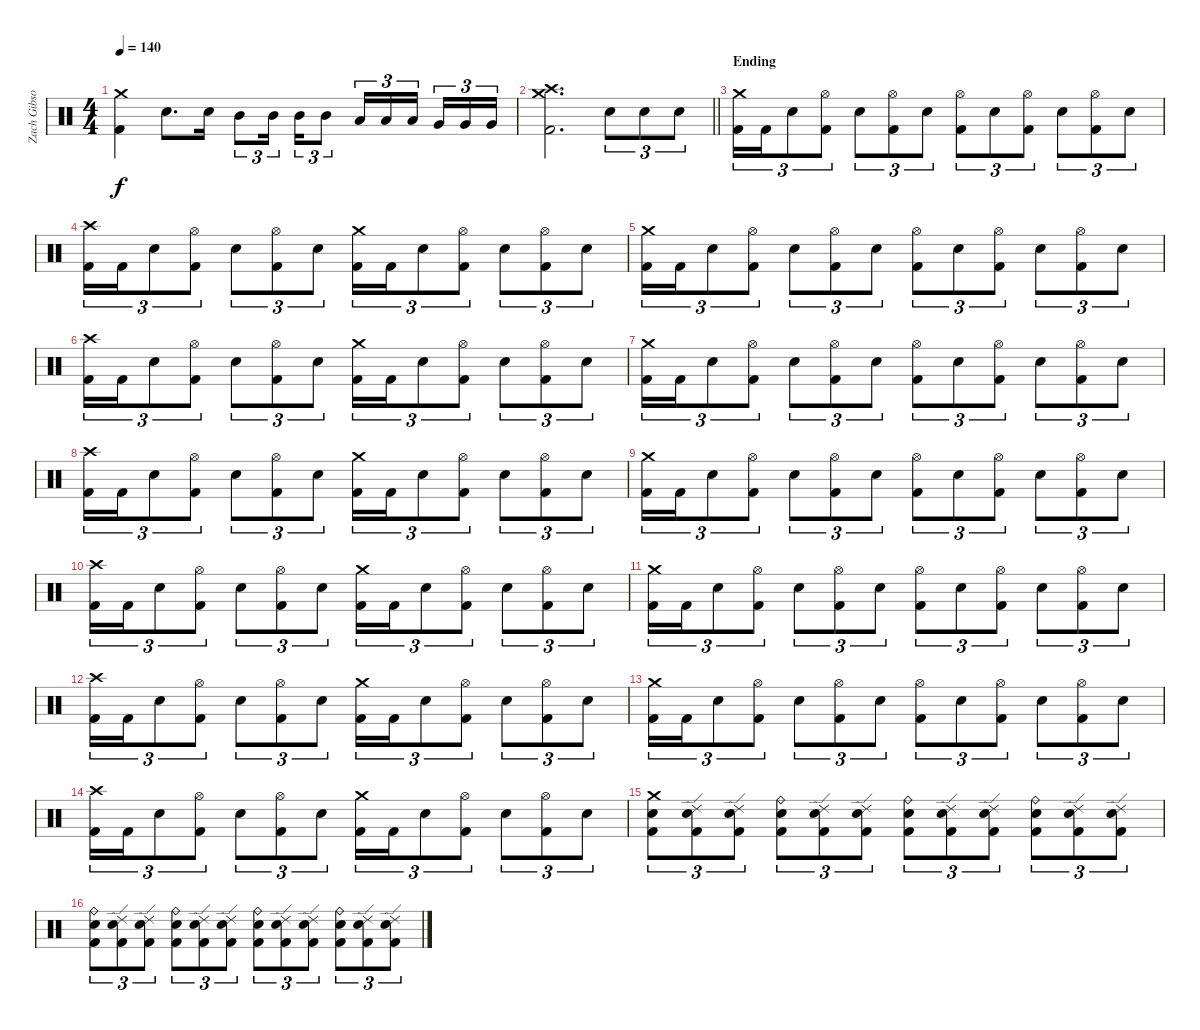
\track ("Zach Gibson" "Zach Gibso") {instrument percussion}
\staff {score}
\articulation defaults
\ts (4 4)
\tempo 140
\clef neutral
\ks c
("Crash medium (hit)" "Kick (hit) 2").4{dy f} "Snare (hit) 2".8{d} "Snare (hit) 2".16 "Mid Tom (hit)".8{tu (3 2)} "Mid Tom (hit)".16{tu (3 2) beam splitsecondary} "Mid Tom (hit)".16{tu (3 2)} "Mid Tom (hit)".8{tu (3 2)} "Low Tom (hit)".16{tu (3 2)} "Low Tom (hit)".16{tu (3 2)} "Low Tom (hit)".16{tu (3 2) beam splitsecondary} "Very Low Tom (hit)".16{tu (3 2)} "Very Low Tom (hit)".16{tu (3 2)} "Very Low Tom (hit)".16{tu (3 2)} |
\barLineRight lightlight
("Crash medium (hit)" "Crash high (hit)" "Kick (hit) 2").2{d} "Snare (hit) 2".8{tu (3 2)} "Snare (hit) 2".8{tu (3 2)} "Snare (hit) 2".8{tu (3 2)} |
\section ("" "Ending")
("Crash medium (hit)" "Kick (hit) 2").16{tu (3 2)} "Kick (hit) 2".16{tu (3 2)} "Snare (hit) 2".8{tu (3 2)} ("Hi-Hat (open)" "Kick (hit) 2").8{tu (3 2)} "Snare (hit) 2".8{tu (3 2)} ("Hi-Hat (open)" "Kick (hit) 2").8{tu (3 2)} "Snare (hit) 2".8{tu (3 2)} ("Hi-Hat (open)" "Kick (hit) 2").8{tu (3 2)} "Snare (hit) 2".8{tu (3 2)} ("Hi-Hat (open)" "Kick (hit) 2").8{tu (3 2)} "Snare (hit) 2".8{tu (3 2)} ("Hi-Hat (open)" "Kick (hit) 2").8{tu (3 2)} "Snare (hit) 2".8{tu (3 2)} |
("Crash high (hit)" "Kick (hit) 2").16{tu (3 2)} "Kick (hit) 2".16{tu (3 2)} "Snare (hit) 2".8{tu (3 2)} ("Hi-Hat (open)" "Kick (hit) 2").8{tu (3 2)} "Snare (hit) 2".8{tu (3 2)} ("Hi-Hat (open)" "Kick (hit) 2").8{tu (3 2)} "Snare (hit) 2".8{tu (3 2)} ("Crash medium (hit)" "Kick (hit) 2").16{tu (3 2)} "Kick (hit) 2".16{tu (3 2)} "Snare (hit) 2".8{tu (3 2)} ("Hi-Hat (open)" "Kick (hit) 2").8{tu (3 2)} "Snare (hit) 2".8{tu (3 2)} ("Hi-Hat (open)" "Kick (hit) 2").8{tu (3 2)} "Snare (hit) 2".8{tu (3 2)} |
("Crash medium (hit)" "Kick (hit) 2").16{tu (3 2)} "Kick (hit) 2".16{tu (3 2)} "Snare (hit) 2".8{tu (3 2)} ("Hi-Hat (open)" "Kick (hit) 2").8{tu (3 2)} "Snare (hit) 2".8{tu (3 2)} ("Hi-Hat (open)" "Kick (hit) 2").8{tu (3 2)} "Snare (hit) 2".8{tu (3 2)} ("Hi-Hat (open)" "Kick (hit) 2").8{tu (3 2)} "Snare (hit) 2".8{tu (3 2)} ("Hi-Hat (open)" "Kick (hit) 2").8{tu (3 2)} "Snare (hit) 2".8{tu (3 2)} ("Hi-Hat (open)" "Kick (hit) 2").8{tu (3 2)} "Snare (hit) 2".8{tu (3 2)} |
("Crash high (hit)" "Kick (hit) 2").16{tu (3 2)} "Kick (hit) 2".16{tu (3 2)} "Snare (hit) 2".8{tu (3 2)} ("Hi-Hat (open)" "Kick (hit) 2").8{tu (3 2)} "Snare (hit) 2".8{tu (3 2)} ("Hi-Hat (open)" "Kick (hit) 2").8{tu (3 2)} "Snare (hit) 2".8{tu (3 2)} ("Crash medium (hit)" "Kick (hit) 2").16{tu (3 2)} "Kick (hit) 2".16{tu (3 2)} "Snare (hit) 2".8{tu (3 2)} ("Hi-Hat (open)" "Kick (hit) 2").8{tu (3 2)} "Snare (hit) 2".8{tu (3 2)} ("Hi-Hat (open)" "Kick (hit) 2").8{tu (3 2)} "Snare (hit) 2".8{tu (3 2)} |
("Crash medium (hit)" "Kick (hit) 2").16{tu (3 2)} "Kick (hit) 2".16{tu (3 2)} "Snare (hit) 2".8{tu (3 2)} ("Hi-Hat (open)" "Kick (hit) 2").8{tu (3 2)} "Snare (hit) 2".8{tu (3 2)} ("Hi-Hat (open)" "Kick (hit) 2").8{tu (3 2)} "Snare (hit) 2".8{tu (3 2)} ("Hi-Hat (open)" "Kick (hit) 2").8{tu (3 2)} "Snare (hit) 2".8{tu (3 2)} ("Hi-Hat (open)" "Kick (hit) 2").8{tu (3 2)} "Snare (hit) 2".8{tu (3 2)} ("Hi-Hat (open)" "Kick (hit) 2").8{tu (3 2)} "Snare (hit) 2".8{tu (3 2)} |
("Crash high (hit)" "Kick (hit) 2").16{tu (3 2)} "Kick (hit) 2".16{tu (3 2)} "Snare (hit) 2".8{tu (3 2)} ("Hi-Hat (open)" "Kick (hit) 2").8{tu (3 2)} "Snare (hit) 2".8{tu (3 2)} ("Hi-Hat (open)" "Kick (hit) 2").8{tu (3 2)} "Snare (hit) 2".8{tu (3 2)} ("Crash medium (hit)" "Kick (hit) 2").16{tu (3 2)} "Kick (hit) 2".16{tu (3 2)} "Snare (hit) 2".8{tu (3 2)} ("Hi-Hat (open)" "Kick (hit) 2").8{tu (3 2)} "Snare (hit) 2".8{tu (3 2)} ("Hi-Hat (open)" "Kick (hit) 2").8{tu (3 2)} "Snare (hit) 2".8{tu (3 2)} |
("Crash medium (hit)" "Kick (hit) 2").16{tu (3 2)} "Kick (hit) 2".16{tu (3 2)} "Snare (hit) 2".8{tu (3 2)} ("Hi-Hat (open)" "Kick (hit) 2").8{tu (3 2)} "Snare (hit) 2".8{tu (3 2)} ("Hi-Hat (open)" "Kick (hit) 2").8{tu (3 2)} "Snare (hit) 2".8{tu (3 2)} ("Hi-Hat (open)" "Kick (hit) 2").8{tu (3 2)} "Snare (hit) 2".8{tu (3 2)} ("Hi-Hat (open)" "Kick (hit) 2").8{tu (3 2)} "Snare (hit) 2".8{tu (3 2)} ("Hi-Hat (open)" "Kick (hit) 2").8{tu (3 2)} "Snare (hit) 2".8{tu (3 2)} |
("Crash high (hit)" "Kick (hit) 2").16{tu (3 2)} "Kick (hit) 2".16{tu (3 2)} "Snare (hit) 2".8{tu (3 2)} ("Hi-Hat (open)" "Kick (hit) 2").8{tu (3 2)} "Snare (hit) 2".8{tu (3 2)} ("Hi-Hat (open)" "Kick (hit) 2").8{tu (3 2)} "Snare (hit) 2".8{tu (3 2)} ("Crash medium (hit)" "Kick (hit) 2").16{tu (3 2)} "Kick (hit) 2".16{tu (3 2)} "Snare (hit) 2".8{tu (3 2)} ("Hi-Hat (open)" "Kick (hit) 2").8{tu (3 2)} "Snare (hit) 2".8{tu (3 2)} ("Hi-Hat (open)" "Kick (hit) 2").8{tu (3 2)} "Snare (hit) 2".8{tu (3 2)} |
("Crash medium (hit)" "Kick (hit) 2").16{tu (3 2)} "Kick (hit) 2".16{tu (3 2)} "Snare (hit) 2".8{tu (3 2)} ("Hi-Hat (open)" "Kick (hit) 2").8{tu (3 2)} "Snare (hit) 2".8{tu (3 2)} ("Hi-Hat (open)" "Kick (hit) 2").8{tu (3 2)} "Snare (hit) 2".8{tu (3 2)} ("Hi-Hat (open)" "Kick (hit) 2").8{tu (3 2)} "Snare (hit) 2".8{tu (3 2)} ("Hi-Hat (open)" "Kick (hit) 2").8{tu (3 2)} "Snare (hit) 2".8{tu (3 2)} ("Hi-Hat (open)" "Kick (hit) 2").8{tu (3 2)} "Snare (hit) 2".8{tu (3 2)} |
("Crash high (hit)" "Kick (hit) 2").16{tu (3 2)} "Kick (hit) 2".16{tu (3 2)} "Snare (hit) 2".8{tu (3 2)} ("Hi-Hat (open)" "Kick (hit) 2").8{tu (3 2)} "Snare (hit) 2".8{tu (3 2)} ("Hi-Hat (open)" "Kick (hit) 2").8{tu (3 2)} "Snare (hit) 2".8{tu (3 2)} ("Crash medium (hit)" "Kick (hit) 2").16{tu (3 2)} "Kick (hit) 2".16{tu (3 2)} "Snare (hit) 2".8{tu (3 2)} ("Hi-Hat (open)" "Kick (hit) 2").8{tu (3 2)} "Snare (hit) 2".8{tu (3 2)} ("Hi-Hat (open)" "Kick (hit) 2").8{tu (3 2)} "Snare (hit) 2".8{tu (3 2)} |
("Crash medium (hit)" "Kick (hit) 2").16{tu (3 2)} "Kick (hit) 2".16{tu (3 2)} "Snare (hit) 2".8{tu (3 2)} ("Hi-Hat (open)" "Kick (hit) 2").8{tu (3 2)} "Snare (hit) 2".8{tu (3 2)} ("Hi-Hat (open)" "Kick (hit) 2").8{tu (3 2)} "Snare (hit) 2".8{tu (3 2)} ("Hi-Hat (open)" "Kick (hit) 2").8{tu (3 2)} "Snare (hit) 2".8{tu (3 2)} ("Hi-Hat (open)" "Kick (hit) 2").8{tu (3 2)} "Snare (hit) 2".8{tu (3 2)} ("Hi-Hat (open)" "Kick (hit) 2").8{tu (3 2)} "Snare (hit) 2".8{tu (3 2)} |
("Crash high (hit)" "Kick (hit) 2").16{tu (3 2)} "Kick (hit) 2".16{tu (3 2)} "Snare (hit) 2".8{tu (3 2)} ("Hi-Hat (open)" "Kick (hit) 2").8{tu (3 2)} "Snare (hit) 2".8{tu (3 2)} ("Hi-Hat (open)" "Kick (hit) 2").8{tu (3 2)} "Snare (hit) 2".8{tu (3 2)} ("Crash medium (hit)" "Kick (hit) 2").16{tu (3 2)} "Kick (hit) 2".16{tu (3 2)} "Snare (hit) 2".8{tu (3 2)} ("Hi-Hat (open)" "Kick (hit) 2").8{tu (3 2)} "Snare (hit) 2".8{tu (3 2)} ("Hi-Hat (open)" "Kick (hit) 2").8{tu (3 2)} "Snare (hit) 2".8{tu (3 2)} |
("Crash medium (hit)" "Snare (hit) 2" "Kick (hit) 2").8{tu (3 2)} ("Ride (edge) 2" "Snare (hit) 2" "Kick (hit) 2").8{tu (3 2)} ("Ride (edge) 2" "Snare (hit) 2" "Kick (hit) 2").8{tu (3 2)} ("Ride (bell)" "Snare (hit) 2" "Kick (hit) 2").8{tu (3 2)} ("Ride (edge) 2" "Snare (hit) 2" "Kick (hit) 2").8{tu (3 2)} ("Ride (edge) 2" "Snare (hit) 2" "Kick (hit) 2").8{tu (3 2)} ("Ride (bell)" "Snare (hit) 2" "Kick (hit) 2").8{tu (3 2)} ("Ride (edge) 2" "Snare (hit) 2" "Kick (hit) 2").8{tu (3 2)} ("Ride (edge) 2" "Snare (hit) 2" "Kick (hit) 2").8{tu (3 2)} ("Ride (bell)" "Snare (hit) 2" "Kick (hit) 2").8{tu (3 2)} ("Ride (edge) 2" "Snare (hit) 2" "Kick (hit) 2").8{tu (3 2)} ("Ride (edge) 2" "Snare (hit) 2" "Kick (hit) 2").8{tu (3 2)} |
("Ride (bell)" "Snare (hit) 2" "Kick (hit) 2").8{tu (3 2)} ("Ride (edge) 2" "Snare (hit) 2" "Kick (hit) 2").8{tu (3 2)} ("Ride (edge) 2" "Snare (hit) 2" "Kick (hit) 2").8{tu (3 2)} ("Ride (bell)" "Snare (hit) 2" "Kick (hit) 2").8{tu (3 2)} ("Ride (edge) 2" "Snare (hit) 2" "Kick (hit) 2").8{tu (3 2)} ("Ride (edge) 2" "Snare (hit) 2" "Kick (hit) 2").8{tu (3 2)} ("Ride (bell)" "Snare (hit) 2" "Kick (hit) 2").8{tu (3 2)} ("Ride (edge) 2" "Snare (hit) 2" "Kick (hit) 2").8{tu (3 2)} ("Ride (edge) 2" "Snare (hit) 2" "Kick (hit) 2").8{tu (3 2)} ("Ride (bell)" "Snare (hit) 2" "Kick (hit) 2").8{tu (3 2)} ("Ride (edge) 2" "Snare (hit) 2" "Kick (hit) 2").8{tu (3 2)} ("Ride (edge) 2" "Snare (hit) 2" "Kick (hit) 2").8{tu (3 2)}
